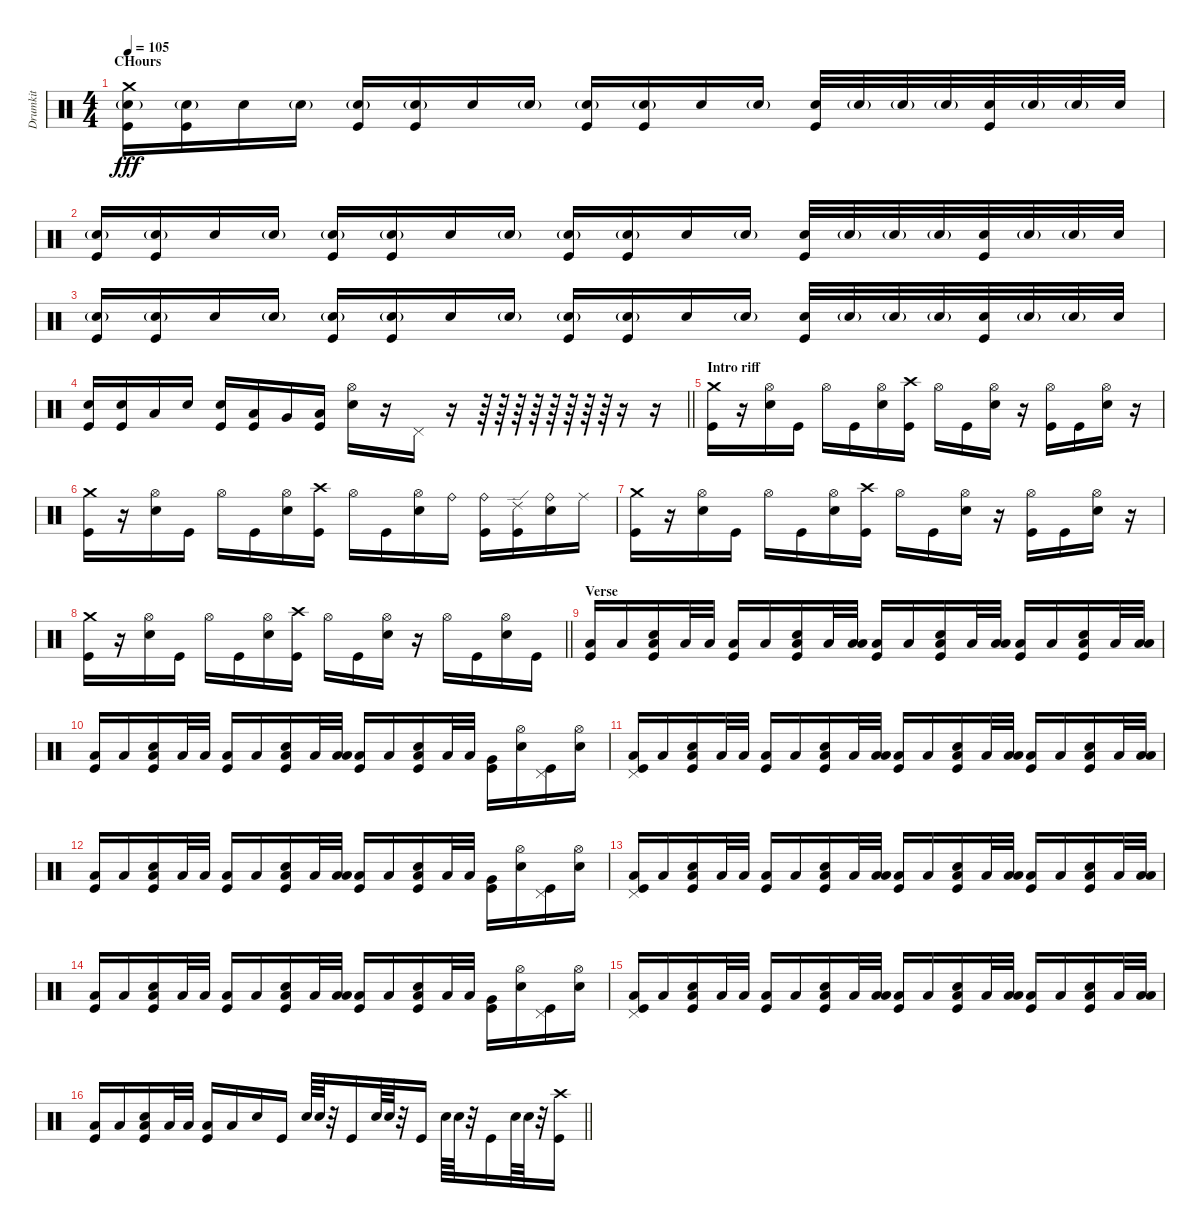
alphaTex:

\track ("Drumkit" "Drumkit") {instrument percussion}
\staff {score}
\articulation defaults
\ts (4 4)
\section ("" "CHours")
\tempo 105
\clef neutral
\ks c
("Crash medium (hit)" "Snare (hit) 2"{g} "Kick (hit)").16{dy fff} ("Snare (hit) 2"{g} "Kick (hit)").16 "Snare (hit) 2".16 "Snare (hit) 2"{g}.16 ("Snare (hit) 2"{g} "Kick (hit)").16 ("Snare (hit) 2"{g} "Kick (hit)").16 "Snare (hit) 2".16 "Snare (hit) 2"{g}.16 ("Snare (hit) 2"{g} "Kick (hit)").16 ("Snare (hit) 2"{g} "Kick (hit)").16 "Snare (hit) 2".16 "Snare (hit) 2"{g}.16 ("Snare (hit) 2" "Kick (hit)").32 "Snare (hit) 2"{g}.32 "Snare (hit) 2"{g}.32 "Snare (hit) 2"{g}.32 ("Snare (hit) 2" "Kick (hit)").32 "Snare (hit) 2"{g}.32 "Snare (hit) 2"{g}.32 "Snare (hit) 2".32 |
("Snare (hit) 2"{g} "Kick (hit)").16 ("Snare (hit) 2"{g} "Kick (hit)").16 "Snare (hit) 2".16 "Snare (hit) 2"{g}.16 ("Snare (hit) 2"{g} "Kick (hit)").16 ("Snare (hit) 2"{g} "Kick (hit)").16 "Snare (hit) 2".16 "Snare (hit) 2"{g}.16 ("Snare (hit) 2"{g} "Kick (hit)").16 ("Snare (hit) 2"{g} "Kick (hit)").16 "Snare (hit) 2".16 "Snare (hit) 2"{g}.16 ("Snare (hit) 2" "Kick (hit)").32 "Snare (hit) 2"{g}.32 "Snare (hit) 2"{g}.32 "Snare (hit) 2"{g}.32 ("Snare (hit) 2" "Kick (hit)").32 "Snare (hit) 2"{g}.32 "Snare (hit) 2"{g}.32 "Snare (hit) 2".32 |
("Snare (hit) 2"{g} "Kick (hit)").16 ("Snare (hit) 2"{g} "Kick (hit)").16 "Snare (hit) 2".16 "Snare (hit) 2"{g}.16 ("Snare (hit) 2"{g} "Kick (hit)").16 ("Snare (hit) 2"{g} "Kick (hit)").16 "Snare (hit) 2".16 "Snare (hit) 2"{g}.16 ("Snare (hit) 2"{g} "Kick (hit)").16 ("Snare (hit) 2"{g} "Kick (hit)").16 "Snare (hit) 2".16 "Snare (hit) 2"{g}.16 ("Snare (hit) 2" "Kick (hit)").32 "Snare (hit) 2"{g}.32 "Snare (hit) 2"{g}.32 "Snare (hit) 2"{g}.32 ("Snare (hit) 2" "Kick (hit)").32 "Snare (hit) 2"{g}.32 "Snare (hit) 2"{g}.32 "Snare (hit) 2".32 |
\barLineRight lightlight
("Snare (hit) 2" "Kick (hit)").16 ("Snare (hit) 2" "Kick (hit)").16 "Low Tom (hit)".16 "Snare (hit) 2".16 ("Snare (hit) 2" "Kick (hit)").16 ("Low Tom (hit)" "Kick (hit)").16 "Very Low Tom (hit)".16 ("Low Floor Tom (hit)" "Kick (hit)").16 ("Hi-Hat (open)" "Snare (hit) 2").16 r.16 "Pedal Hi-Hat (hit)".16 r.16 r.64 r.64 r.64 r.64 r.64 r.64 r.64 r.64 r.16 r.16 |
\section ("" "Intro riff")
("Crash medium (hit)" "Kick (hit)").16 r.16 ("Hi-Hat (open)" "Snare (hit) 2").16 "Kick (hit)".16 "Hi-Hat (open)".16 "Kick (hit)".16 ("Hi-Hat (open)" "Snare (hit) 2").16 ("Crash high (hit)" "Kick (hit)").16 "Hi-Hat (open)".16 "Kick (hit)".16 ("Hi-Hat (open)" "Snare (hit) 2").16 r.16 ("Hi-Hat (open)" "Kick (hit)").16 "Kick (hit)".16 ("Hi-Hat (open)" "Snare (hit) 2").16 r.16 |
("Crash medium (hit)" "Kick (hit)").16 r.16 ("Hi-Hat (open)" "Snare (hit) 2").16 "Kick (hit)".16 "Hi-Hat (open)".16 "Kick (hit)".16 ("Hi-Hat (open)" "Snare (hit) 2").16 ("Crash high (hit)" "Kick (hit)").16 "Hi-Hat (open)".16 "Kick (hit)".16 ("Hi-Hat (open)" "Snare (hit) 2").16 "Ride (bell)".16 ("Ride (bell)" "Kick (hit)").16 ("Ride (edge) 2" "Kick (hit)").16 ("Ride (bell)" "Snare (hit) 2").16 "Ride (middle)".16 |
("Crash medium (hit)" "Kick (hit)").16 r.16 ("Hi-Hat (open)" "Snare (hit) 2").16 "Kick (hit)".16 "Hi-Hat (open)".16 "Kick (hit)".16 ("Hi-Hat (open)" "Snare (hit) 2").16 ("Crash high (hit)" "Kick (hit)").16 "Hi-Hat (open)".16 "Kick (hit)".16 ("Hi-Hat (open)" "Snare (hit) 2").16 r.16 ("Hi-Hat (open)" "Kick (hit)").16 "Kick (hit)".16 ("Hi-Hat (open)" "Snare (hit) 2").16 r.16 |
\barLineRight lightlight
("Crash medium (hit)" "Kick (hit)").16 r.16 ("Hi-Hat (open)" "Snare (hit) 2").16 "Kick (hit)".16 "Hi-Hat (open)".16 "Kick (hit)".16 ("Hi-Hat (open)" "Snare (hit) 2").16 ("Crash high (hit)" "Kick (hit)").16 "Hi-Hat (open)".16 "Kick (hit)".16 ("Hi-Hat (open)" "Snare (hit) 2").16 r.16 "Hi-Hat (open)".16 "Kick (hit)".16 ("Hi-Hat (open)" "Snare (hit) 2").16 "Kick (hit)".16 |
\section ("" "Verse")
("Low Floor Tom (hit)" "Kick (hit)").16 "Low Floor Tom (hit)".16 ("Snare (hit) 2" "Low Floor Tom (hit)" "Kick (hit)").16 "Low Floor Tom (hit)".32 "Low Tom (hit)".32 ("Low Floor Tom (hit)" "Kick (hit)").16 "Low Floor Tom (hit)".16 ("Snare (hit) 2" "Low Floor Tom (hit)" "Kick (hit)").16 "Low Floor Tom (hit)".32 ("Low Tom (hit)" "Low Floor Tom (hit)").32 ("Low Floor Tom (hit)" "Kick (hit)").16 "Low Floor Tom (hit)".16 ("Snare (hit) 2" "Low Floor Tom (hit)" "Kick (hit)").16 "Low Floor Tom (hit)".32 ("Low Tom (hit)" "Low Floor Tom (hit)").32 ("Low Floor Tom (hit)" "Kick (hit)").16 "Low Floor Tom (hit)".16 ("Snare (hit) 2" "Low Floor Tom (hit)" "Kick (hit)").16 "Low Floor Tom (hit)".32 ("Low Tom (hit)" "Low Floor Tom (hit)").32 |
("Low Floor Tom (hit)" "Kick (hit)").16 "Low Floor Tom (hit)".16 ("Snare (hit) 2" "Low Floor Tom (hit)" "Kick (hit)").16 "Low Floor Tom (hit)".32 "Low Tom (hit)".32 ("Low Floor Tom (hit)" "Kick (hit)").16 "Low Floor Tom (hit)".16 ("Snare (hit) 2" "Low Floor Tom (hit)" "Kick (hit)").16 "Low Floor Tom (hit)".32 ("Low Tom (hit)" "Low Floor Tom (hit)").32 ("Low Floor Tom (hit)" "Kick (hit)").16 "Low Floor Tom (hit)".16 ("Snare (hit) 2" "Low Floor Tom (hit)" "Kick (hit)").16 "Low Floor Tom (hit)".32 "Low Tom (hit)".32 ("Very Low Tom (hit)" "Kick (hit)").16 ("Hi-Hat (open)" "Snare (hit) 2").16 ("Pedal Hi-Hat (hit)" "Kick (hit)").16 ("Hi-Hat (open)" "Snare (hit) 2").16 |
("Pedal Hi-Hat (hit)" "Low Floor Tom (hit)" "Kick (hit)").16 "Low Floor Tom (hit)".16 ("Snare (hit) 2" "Low Floor Tom (hit)" "Kick (hit)").16 "Low Floor Tom (hit)".32 "Low Tom (hit)".32 ("Low Floor Tom (hit)" "Kick (hit)").16 "Low Floor Tom (hit)".16 ("Snare (hit) 2" "Low Floor Tom (hit)" "Kick (hit)").16 "Low Floor Tom (hit)".32 ("Low Tom (hit)" "Low Floor Tom (hit)").32 ("Low Floor Tom (hit)" "Kick (hit)").16 "Low Floor Tom (hit)".16 ("Snare (hit) 2" "Low Floor Tom (hit)" "Kick (hit)").16 "Low Floor Tom (hit)".32 ("Low Tom (hit)" "Low Floor Tom (hit)").32 ("Low Floor Tom (hit)" "Kick (hit)").16 "Low Floor Tom (hit)".16 ("Snare (hit) 2" "Low Floor Tom (hit)" "Kick (hit)").16 "Low Floor Tom (hit)".32 ("Low Tom (hit)" "Low Floor Tom (hit)").32 |
("Low Floor Tom (hit)" "Kick (hit)").16 "Low Floor Tom (hit)".16 ("Snare (hit) 2" "Low Floor Tom (hit)" "Kick (hit)").16 "Low Floor Tom (hit)".32 "Low Tom (hit)".32 ("Low Floor Tom (hit)" "Kick (hit)").16 "Low Floor Tom (hit)".16 ("Snare (hit) 2" "Low Floor Tom (hit)" "Kick (hit)").16 "Low Floor Tom (hit)".32 ("Low Tom (hit)" "Low Floor Tom (hit)").32 ("Low Floor Tom (hit)" "Kick (hit)").16 "Low Floor Tom (hit)".16 ("Snare (hit) 2" "Low Floor Tom (hit)" "Kick (hit)").16 "Low Floor Tom (hit)".32 "Low Tom (hit)".32 ("Very Low Tom (hit)" "Kick (hit)").16 ("Hi-Hat (open)" "Snare (hit) 2").16 ("Pedal Hi-Hat (hit)" "Kick (hit)").16 ("Hi-Hat (open)" "Snare (hit) 2").16 |
("Pedal Hi-Hat (hit)" "Low Floor Tom (hit)" "Kick (hit)").16 "Low Floor Tom (hit)".16 ("Snare (hit) 2" "Low Floor Tom (hit)" "Kick (hit)").16 "Low Floor Tom (hit)".32 "Low Tom (hit)".32 ("Low Floor Tom (hit)" "Kick (hit)").16 "Low Floor Tom (hit)".16 ("Snare (hit) 2" "Low Floor Tom (hit)" "Kick (hit)").16 "Low Floor Tom (hit)".32 ("Low Tom (hit)" "Low Floor Tom (hit)").32 ("Low Floor Tom (hit)" "Kick (hit)").16 "Low Floor Tom (hit)".16 ("Snare (hit) 2" "Low Floor Tom (hit)" "Kick (hit)").16 "Low Floor Tom (hit)".32 ("Low Tom (hit)" "Low Floor Tom (hit)").32 ("Low Floor Tom (hit)" "Kick (hit)").16 "Low Floor Tom (hit)".16 ("Snare (hit) 2" "Low Floor Tom (hit)" "Kick (hit)").16 "Low Floor Tom (hit)".32 ("Low Tom (hit)" "Low Floor Tom (hit)").32 |
("Low Floor Tom (hit)" "Kick (hit)").16 "Low Floor Tom (hit)".16 ("Snare (hit) 2" "Low Floor Tom (hit)" "Kick (hit)").16 "Low Floor Tom (hit)".32 "Low Tom (hit)".32 ("Low Floor Tom (hit)" "Kick (hit)").16 "Low Floor Tom (hit)".16 ("Snare (hit) 2" "Low Floor Tom (hit)" "Kick (hit)").16 "Low Floor Tom (hit)".32 ("Low Tom (hit)" "Low Floor Tom (hit)").32 ("Low Floor Tom (hit)" "Kick (hit)").16 "Low Floor Tom (hit)".16 ("Snare (hit) 2" "Low Floor Tom (hit)" "Kick (hit)").16 "Low Floor Tom (hit)".32 "Low Tom (hit)".32 ("Very Low Tom (hit)" "Kick (hit)").16 ("Hi-Hat (open)" "Snare (hit) 2").16 ("Pedal Hi-Hat (hit)" "Kick (hit)").16 ("Hi-Hat (open)" "Snare (hit) 2").16 |
("Pedal Hi-Hat (hit)" "Low Floor Tom (hit)" "Kick (hit)").16 "Low Floor Tom (hit)".16 ("Snare (hit) 2" "Low Floor Tom (hit)" "Kick (hit)").16 "Low Floor Tom (hit)".32 "Low Tom (hit)".32 ("Low Floor Tom (hit)" "Kick (hit)").16 "Low Floor Tom (hit)".16 ("Snare (hit) 2" "Low Floor Tom (hit)" "Kick (hit)").16 "Low Floor Tom (hit)".32 ("Low Tom (hit)" "Low Floor Tom (hit)").32 ("Low Floor Tom (hit)" "Kick (hit)").16 "Low Floor Tom (hit)".16 ("Snare (hit) 2" "Low Floor Tom (hit)" "Kick (hit)").16 "Low Floor Tom (hit)".32 ("Low Tom (hit)" "Low Floor Tom (hit)").32 ("Low Floor Tom (hit)" "Kick (hit)").16 "Low Floor Tom (hit)".16 ("Snare (hit) 2" "Low Floor Tom (hit)" "Kick (hit)").16 "Low Floor Tom (hit)".32 ("Low Tom (hit)" "Low Floor Tom (hit)").32 |
\barLineRight lightlight
("Low Floor Tom (hit)" "Kick (hit)").16 "Low Floor Tom (hit)".16 ("Snare (hit) 2" "Low Floor Tom (hit)" "Kick (hit)").16 "Low Floor Tom (hit)".32 "Low Tom (hit)".32 ("Low Floor Tom (hit)" "Kick (hit)").16 "Low Floor Tom (hit)".16 "Snare (hit) 2".16 "Kick (hit)".16 "Snare (hit) 2".64 "Snare (hit) 2".64 r.32 "Kick (hit)".16 "Snare (hit) 2".64 "Snare (hit) 2".64 r.32 "Kick (hit)".16 "Snare (hit) 2".64 "Snare (hit) 2".64 r.32 "Kick (hit)".16 "Snare (hit) 2".64 "Snare (hit) 2".64 r.32 ("Crash high (hit)" "Kick (hit)").16
